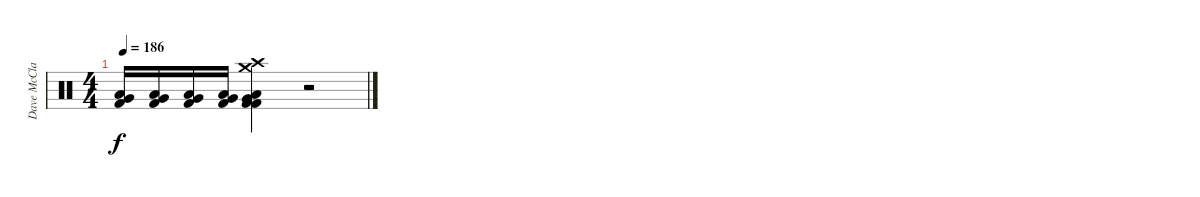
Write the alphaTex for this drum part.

\track ("Dave McClain" "Dave McCla") {instrument percussion}
\staff {score}
\articulation defaults
\ts (4 4)
\tempo 186
\clef neutral
\ks c
("Very Low Tom (hit)" "Low Floor Tom (hit)" "Kick (hit) 2").16{dy f} ("Very Low Tom (hit)" "Low Floor Tom (hit)" "Kick (hit) 2").16 ("Very Low Tom (hit)" "Low Floor Tom (hit)" "Kick (hit) 2").16 ("Very Low Tom (hit)" "Low Floor Tom (hit)" "Kick (hit) 2").16 ("Kick (hit) 2" "Crash medium (hit)" "Crash high (hit)" "Very Low Tom (hit)" "Low Floor Tom (hit)" "Kick (hit) 2").4 r.2
